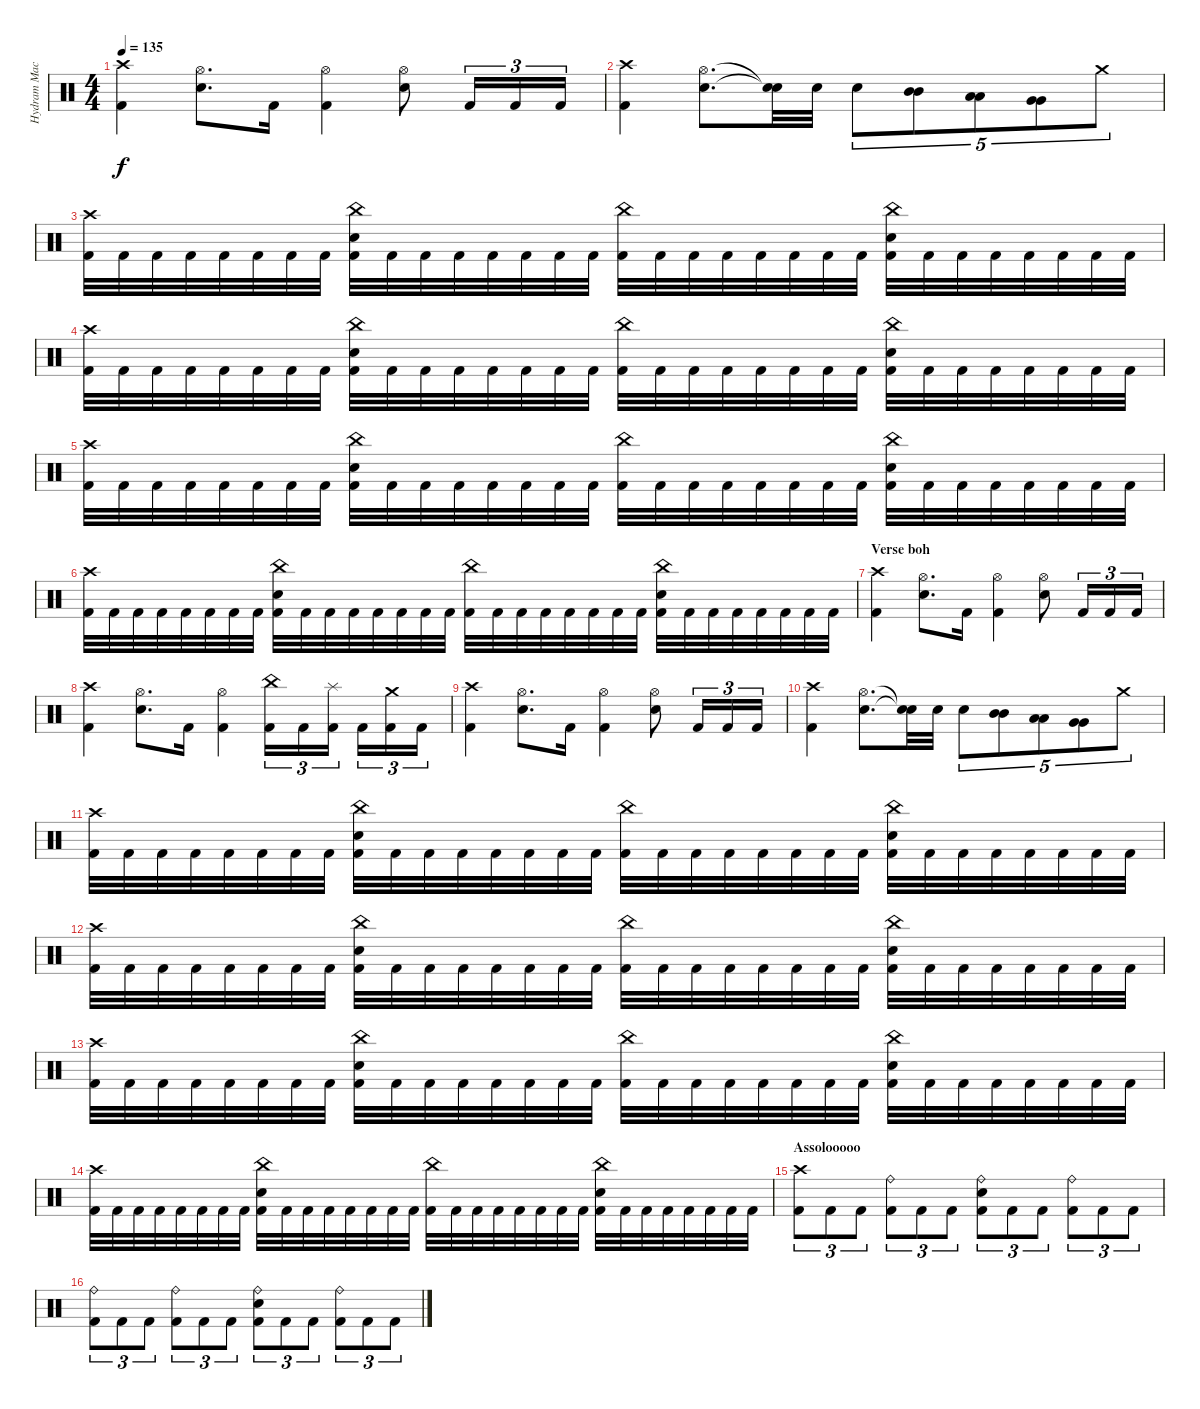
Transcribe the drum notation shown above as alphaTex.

\track ("Hydram Machine" "Hydram Mac") {instrument percussion}
\staff {score}
\articulation defaults
\ts (4 4)
\tempo 135
\clef neutral
\ks c
("Crash high (hit)" "Kick (hit) 2").4{dy f} ("Hi-Hat (open)" "Electric Snare (hit)").8{d} "Kick (hit) 2".16 ("Hi-Hat (open)" "Kick (hit) 2").4 ("Hi-Hat (open)" "Electric Snare (hit)").8 "Kick (hit) 2".16{tu (3 2)} "Kick (hit) 2".16{tu (3 2)} "Kick (hit) 2".16{tu (3 2)} |
("Crash high (hit)" "Kick (hit) 2").4 ("Hi-Hat (open)" "Electric Snare (hit)").8{d} ("Snare (hit)"{t} "Snare (hit)"{t}).32 "Electric Snare (hit)".32 "Electric Snare (hit)".8{tu (5 4)} ("Mid Tom (hit)" "Mid Tom (hit)").8{tu (5 4)} ("Low Tom (hit)" "Low Tom (hit)").8{tu (5 4)} ("Very Low Tom (hit)" "Very Low Tom (hit)").8{tu (5 4)} "Crash medium (hit)".8{tu (5 4)} |
("Crash high (hit)" "Kick (hit) 2").32 "Kick (hit) 2".32 "Kick (hit) 2".32 "Kick (hit) 2".32 "Kick (hit) 2".32 "Kick (hit) 2".32 "Kick (hit) 2".32 "Kick (hit) 2".32 ("China (hit)" "Electric Snare (hit)" "Kick (hit) 2").32 "Kick (hit) 2".32 "Kick (hit) 2".32 "Kick (hit) 2".32 "Kick (hit) 2".32 "Kick (hit) 2".32 "Kick (hit) 2".32 "Kick (hit) 2".32 ("China (hit)" "Kick (hit) 2").32 "Kick (hit) 2".32 "Kick (hit) 2".32 "Kick (hit) 2".32 "Kick (hit) 2".32 "Kick (hit) 2".32 "Kick (hit) 2".32 "Kick (hit) 2".32 ("China (hit)" "Electric Snare (hit)" "Kick (hit) 2").32 "Kick (hit) 2".32 "Kick (hit) 2".32 "Kick (hit) 2".32 "Kick (hit) 2".32 "Kick (hit) 2".32 "Kick (hit) 2".32 "Kick (hit) 2".32 |
("Crash high (hit)" "Kick (hit) 2").32 "Kick (hit) 2".32 "Kick (hit) 2".32 "Kick (hit) 2".32 "Kick (hit) 2".32 "Kick (hit) 2".32 "Kick (hit) 2".32 "Kick (hit) 2".32 ("China (hit)" "Electric Snare (hit)" "Kick (hit) 2").32 "Kick (hit) 2".32 "Kick (hit) 2".32 "Kick (hit) 2".32 "Kick (hit) 2".32 "Kick (hit) 2".32 "Kick (hit) 2".32 "Kick (hit) 2".32 ("China (hit)" "Kick (hit) 2").32 "Kick (hit) 2".32 "Kick (hit) 2".32 "Kick (hit) 2".32 "Kick (hit) 2".32 "Kick (hit) 2".32 "Kick (hit) 2".32 "Kick (hit) 2".32 ("China (hit)" "Electric Snare (hit)" "Kick (hit) 2").32 "Kick (hit) 2".32 "Kick (hit) 2".32 "Kick (hit) 2".32 "Kick (hit) 2".32 "Kick (hit) 2".32 "Kick (hit) 2".32 "Kick (hit) 2".32 |
("Crash high (hit)" "Kick (hit) 2").32 "Kick (hit) 2".32 "Kick (hit) 2".32 "Kick (hit) 2".32 "Kick (hit) 2".32 "Kick (hit) 2".32 "Kick (hit) 2".32 "Kick (hit) 2".32 ("China (hit)" "Electric Snare (hit)" "Kick (hit) 2").32 "Kick (hit) 2".32 "Kick (hit) 2".32 "Kick (hit) 2".32 "Kick (hit) 2".32 "Kick (hit) 2".32 "Kick (hit) 2".32 "Kick (hit) 2".32 ("China (hit)" "Kick (hit) 2").32 "Kick (hit) 2".32 "Kick (hit) 2".32 "Kick (hit) 2".32 "Kick (hit) 2".32 "Kick (hit) 2".32 "Kick (hit) 2".32 "Kick (hit) 2".32 ("China (hit)" "Electric Snare (hit)" "Kick (hit) 2").32 "Kick (hit) 2".32 "Kick (hit) 2".32 "Kick (hit) 2".32 "Kick (hit) 2".32 "Kick (hit) 2".32 "Kick (hit) 2".32 "Kick (hit) 2".32 |
("Crash high (hit)" "Kick (hit) 2").32 "Kick (hit) 2".32 "Kick (hit) 2".32 "Kick (hit) 2".32 "Kick (hit) 2".32 "Kick (hit) 2".32 "Kick (hit) 2".32 "Kick (hit) 2".32 ("China (hit)" "Electric Snare (hit)" "Kick (hit) 2").32 "Kick (hit) 2".32 "Kick (hit) 2".32 "Kick (hit) 2".32 "Kick (hit) 2".32 "Kick (hit) 2".32 "Kick (hit) 2".32 "Kick (hit) 2".32 ("China (hit)" "Kick (hit) 2").32 "Kick (hit) 2".32 "Kick (hit) 2".32 "Kick (hit) 2".32 "Kick (hit) 2".32 "Kick (hit) 2".32 "Kick (hit) 2".32 "Kick (hit) 2".32 ("China (hit)" "Electric Snare (hit)" "Kick (hit) 2").32 "Kick (hit) 2".32 "Kick (hit) 2".32 "Kick (hit) 2".32 "Kick (hit) 2".32 "Kick (hit) 2".32 "Kick (hit) 2".32 "Kick (hit) 2".32 |
\section ("" "Verse boh")
("Crash high (hit)" "Kick (hit) 2").4 ("Hi-Hat (open)" "Electric Snare (hit)").8{d} "Kick (hit) 2".16 ("Hi-Hat (open)" "Kick (hit) 2").4 ("Hi-Hat (open)" "Electric Snare (hit)").8 "Kick (hit) 2".16{tu (3 2)} "Kick (hit) 2".16{tu (3 2)} "Kick (hit) 2".16{tu (3 2)} |
("Crash high (hit)" "Kick (hit) 2").4 ("Hi-Hat (open)" "Electric Snare (hit)").8{d} "Kick (hit) 2".16 ("Hi-Hat (open)" "Kick (hit) 2").4 ("China (hit)" "Kick (hit) 2").16{tu (3 2)} "Kick (hit) 2".16{tu (3 2)} ("Splash (hit)" "Kick (hit) 2").16{tu (3 2) beam splitsecondary} "Kick (hit) 2".16{tu (3 2)} ("Crash medium (hit)" "Kick (hit) 2").16{tu (3 2)} "Kick (hit) 2".16{tu (3 2)} |
("Crash high (hit)" "Kick (hit) 2").4 ("Hi-Hat (open)" "Electric Snare (hit)").8{d} "Kick (hit) 2".16 ("Hi-Hat (open)" "Kick (hit) 2").4 ("Hi-Hat (open)" "Electric Snare (hit)").8 "Kick (hit) 2".16{tu (3 2)} "Kick (hit) 2".16{tu (3 2)} "Kick (hit) 2".16{tu (3 2)} |
("Crash high (hit)" "Kick (hit) 2").4 ("Hi-Hat (open)" "Electric Snare (hit)").8{d} ("Snare (hit)"{t} "Snare (hit)"{t}).32 "Electric Snare (hit)".32 "Electric Snare (hit)".8{tu (5 4)} ("Mid Tom (hit)" "Mid Tom (hit)").8{tu (5 4)} ("Low Tom (hit)" "Low Tom (hit)").8{tu (5 4)} ("Very Low Tom (hit)" "Very Low Tom (hit)").8{tu (5 4)} "Crash medium (hit)".8{tu (5 4)} |
("Crash high (hit)" "Kick (hit) 2").32 "Kick (hit) 2".32 "Kick (hit) 2".32 "Kick (hit) 2".32 "Kick (hit) 2".32 "Kick (hit) 2".32 "Kick (hit) 2".32 "Kick (hit) 2".32 ("China (hit)" "Electric Snare (hit)" "Kick (hit) 2").32 "Kick (hit) 2".32 "Kick (hit) 2".32 "Kick (hit) 2".32 "Kick (hit) 2".32 "Kick (hit) 2".32 "Kick (hit) 2".32 "Kick (hit) 2".32 ("China (hit)" "Kick (hit) 2").32 "Kick (hit) 2".32 "Kick (hit) 2".32 "Kick (hit) 2".32 "Kick (hit) 2".32 "Kick (hit) 2".32 "Kick (hit) 2".32 "Kick (hit) 2".32 ("China (hit)" "Electric Snare (hit)" "Kick (hit) 2").32 "Kick (hit) 2".32 "Kick (hit) 2".32 "Kick (hit) 2".32 "Kick (hit) 2".32 "Kick (hit) 2".32 "Kick (hit) 2".32 "Kick (hit) 2".32 |
("Crash high (hit)" "Kick (hit) 2").32 "Kick (hit) 2".32 "Kick (hit) 2".32 "Kick (hit) 2".32 "Kick (hit) 2".32 "Kick (hit) 2".32 "Kick (hit) 2".32 "Kick (hit) 2".32 ("China (hit)" "Electric Snare (hit)" "Kick (hit) 2").32 "Kick (hit) 2".32 "Kick (hit) 2".32 "Kick (hit) 2".32 "Kick (hit) 2".32 "Kick (hit) 2".32 "Kick (hit) 2".32 "Kick (hit) 2".32 ("China (hit)" "Kick (hit) 2").32 "Kick (hit) 2".32 "Kick (hit) 2".32 "Kick (hit) 2".32 "Kick (hit) 2".32 "Kick (hit) 2".32 "Kick (hit) 2".32 "Kick (hit) 2".32 ("China (hit)" "Electric Snare (hit)" "Kick (hit) 2").32 "Kick (hit) 2".32 "Kick (hit) 2".32 "Kick (hit) 2".32 "Kick (hit) 2".32 "Kick (hit) 2".32 "Kick (hit) 2".32 "Kick (hit) 2".32 |
("Crash high (hit)" "Kick (hit) 2").32 "Kick (hit) 2".32 "Kick (hit) 2".32 "Kick (hit) 2".32 "Kick (hit) 2".32 "Kick (hit) 2".32 "Kick (hit) 2".32 "Kick (hit) 2".32 ("China (hit)" "Electric Snare (hit)" "Kick (hit) 2").32 "Kick (hit) 2".32 "Kick (hit) 2".32 "Kick (hit) 2".32 "Kick (hit) 2".32 "Kick (hit) 2".32 "Kick (hit) 2".32 "Kick (hit) 2".32 ("China (hit)" "Kick (hit) 2").32 "Kick (hit) 2".32 "Kick (hit) 2".32 "Kick (hit) 2".32 "Kick (hit) 2".32 "Kick (hit) 2".32 "Kick (hit) 2".32 "Kick (hit) 2".32 ("China (hit)" "Electric Snare (hit)" "Kick (hit) 2").32 "Kick (hit) 2".32 "Kick (hit) 2".32 "Kick (hit) 2".32 "Kick (hit) 2".32 "Kick (hit) 2".32 "Kick (hit) 2".32 "Kick (hit) 2".32 |
("Crash high (hit)" "Kick (hit) 2").32 "Kick (hit) 2".32 "Kick (hit) 2".32 "Kick (hit) 2".32 "Kick (hit) 2".32 "Kick (hit) 2".32 "Kick (hit) 2".32 "Kick (hit) 2".32 ("China (hit)" "Electric Snare (hit)" "Kick (hit) 2").32 "Kick (hit) 2".32 "Kick (hit) 2".32 "Kick (hit) 2".32 "Kick (hit) 2".32 "Kick (hit) 2".32 "Kick (hit) 2".32 "Kick (hit) 2".32 ("China (hit)" "Kick (hit) 2").32 "Kick (hit) 2".32 "Kick (hit) 2".32 "Kick (hit) 2".32 "Kick (hit) 2".32 "Kick (hit) 2".32 "Kick (hit) 2".32 "Kick (hit) 2".32 ("China (hit)" "Electric Snare (hit)" "Kick (hit) 2").32 "Kick (hit) 2".32 "Kick (hit) 2".32 "Kick (hit) 2".32 "Kick (hit) 2".32 "Kick (hit) 2".32 "Kick (hit) 2".32 "Kick (hit) 2".32 |
\section ("" "Assolooooo")
("Crash high (hit)" "Kick (hit) 2").8{tu (3 2)} "Kick (hit) 2".8{tu (3 2)} "Kick (hit) 2".8{tu (3 2)} ("Ride (bell)" "Kick (hit) 2").8{tu (3 2)} "Kick (hit) 2".8{tu (3 2)} "Kick (hit) 2".8{tu (3 2)} ("Ride (bell)" "Electric Snare (hit)" "Kick (hit) 2").8{tu (3 2)} "Kick (hit) 2".8{tu (3 2)} "Kick (hit) 2".8{tu (3 2)} ("Ride (bell)" "Kick (hit) 2").8{tu (3 2)} "Kick (hit) 2".8{tu (3 2)} "Kick (hit) 2".8{tu (3 2)} |
("Ride (bell)" "Kick (hit) 2").8{tu (3 2)} "Kick (hit) 2".8{tu (3 2)} "Kick (hit) 2".8{tu (3 2)} ("Ride (bell)" "Kick (hit) 2").8{tu (3 2)} "Kick (hit) 2".8{tu (3 2)} "Kick (hit) 2".8{tu (3 2)} ("Ride (bell)" "Electric Snare (hit)" "Kick (hit) 2").8{tu (3 2)} "Kick (hit) 2".8{tu (3 2)} "Kick (hit) 2".8{tu (3 2)} ("Ride (bell)" "Kick (hit) 2").8{tu (3 2)} "Kick (hit) 2".8{tu (3 2)} "Kick (hit) 2".8{tu (3 2)}
